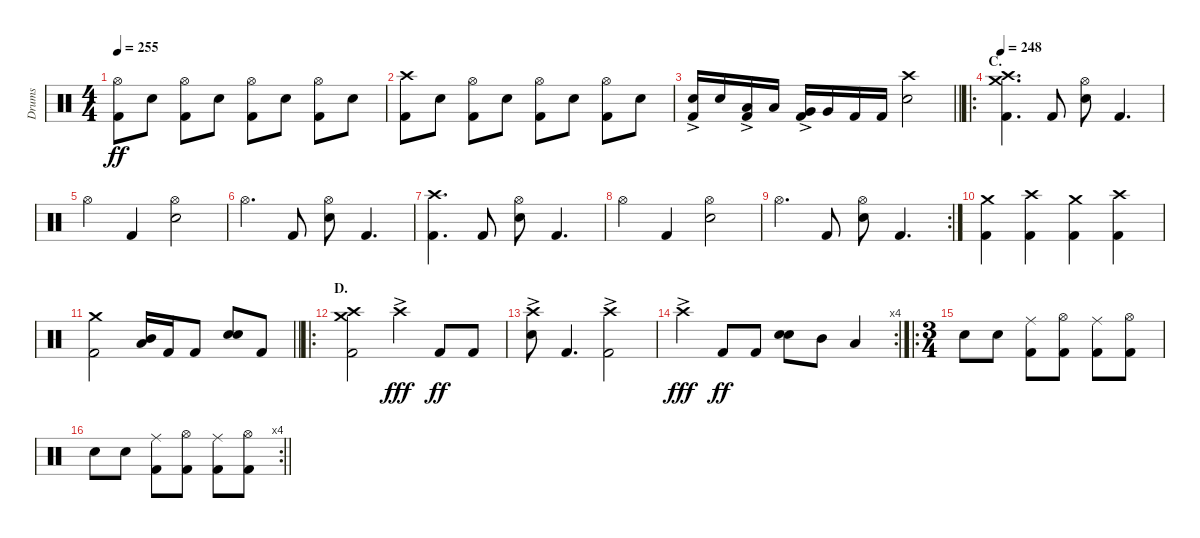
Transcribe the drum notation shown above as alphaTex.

\track ("Drums" "Drums") {instrument percussion}
\staff {score}
\articulation defaults
\ts (4 4)
\tempo 255
\clef neutral
\ks c
("Hi-Hat (open)" "Kick (hit) 2").8{dy ff} "Electric Snare (hit)".8 ("Hi-Hat (open)" "Kick (hit) 2").8 "Electric Snare (hit)".8 ("Hi-Hat (open)" "Kick (hit) 2").8 "Electric Snare (hit)".8 ("Hi-Hat (open)" "Kick (hit) 2").8 "Electric Snare (hit)".8 |
("Crash high (hit)" "Kick (hit) 2").8 "Electric Snare (hit)".8 ("Hi-Hat (open)" "Kick (hit) 2").8 "Electric Snare (hit)".8 ("Hi-Hat (open)" "Kick (hit) 2").8 "Electric Snare (hit)".8 ("Hi-Hat (open)" "Kick (hit) 2").8 "Electric Snare (hit)".8 |
\barLineRight lightlight
("Electric Snare (hit)"{ac} "Kick (hit) 2").16 "Electric Snare (hit)".16 ("Low Tom (hit)"{ac} "Kick (hit) 2").16 "Low Tom (hit)".16 ("Very Low Tom (hit)"{ac} "Kick (hit) 2").16 "Very Low Tom (hit)".16 "Kick (hit) 2".16 "Kick (hit) 2".16 ("Crash high (hit)" "Electric Snare (hit)").2 |
\ro
\section ("" "C.")
\tempo 248
("Crash medium (hit)" "Crash high (hit)" "Kick (hit) 2").4{d} "Kick (hit) 2".8 ("Hi-Hat (open)" "Electric Snare (hit)").8 "Kick (hit) 2".4{d} |
"Hi-Hat (open)".4 "Kick (hit) 2".4 ("Hi-Hat (open)" "Electric Snare (hit)").2 |
"Hi-Hat (open)".4{d} "Kick (hit) 2".8 ("Hi-Hat (open)" "Electric Snare (hit)").8 "Kick (hit) 2".4{d} |
("Crash high (hit)" "Kick (hit) 2").4{d} "Kick (hit) 2".8 ("Hi-Hat (open)" "Electric Snare (hit)").8 "Kick (hit) 2".4{d} |
"Hi-Hat (open)".4 "Kick (hit) 2".4 ("Hi-Hat (open)" "Electric Snare (hit)").2 |
\rc 2 "Hi-Hat (open)".4{d} "Kick (hit) 2".8
("Hi-Hat (open)" "Electric Snare (hit)").8 "Kick (hit) 2".4{d} |
("Crash medium (hit)" "Kick (hit) 2").4 ("Crash high (hit)" "Kick (hit) 2").4 ("Crash medium (hit)" "Kick (hit) 2").4 ("Crash high (hit)" "Kick (hit) 2").4 |
\barLineRight lightlight
("Crash medium (hit)" "Kick (hit) 2").2 ("Mid Tom (hit)" "Low Tom (hit)").16{bu 60} "Kick (hit) 2".16 "Kick (hit) 2".8 ("Electric Snare (hit)" "Electric Snare (hit)").8{bu 60} "Kick (hit) 2".8 |
\ro
\section ("" "D.")
("Crash medium (hit)" "Crash high (hit)" "Kick (hit) 2").2 "Crash high (hit)"{ac}.4{dy fff} "Kick (hit) 2".8{dy ff} "Kick (hit) 2".8 |
("Crash high (hit)"{ac} "Electric Snare (hit)").8 "Kick (hit) 2".4{d} ("Crash high (hit)"{ac} "Kick (hit) 2").2 |
\rc 4 "Crash high (hit)"{ac}.4{dy fff} "Kick (hit) 2".8{dy ff} "Kick (hit) 2".8
("Electric Snare (hit)" "Electric Snare (hit)").8{bu 60} "Mid Tom (hit)".8 "Low Tom (hit)".4 |
\ro
\ts (3 4)
"Electric Snare (hit)".8 "Electric Snare (hit)".8 ("Ride (middle)" "Kick (hit) 2").8 ("Hi-Hat (open)" "Kick (hit) 2").8 ("Ride (middle)" "Kick (hit) 2").8 ("Hi-Hat (open)" "Kick (hit) 2").8 |
\rc 4
\barLineRight lightlight "Electric Snare (hit)".8 "Electric Snare (hit)".8
("Ride (middle)" "Kick (hit) 2").8 ("Hi-Hat (open)" "Kick (hit) 2").8 ("Ride (middle)" "Kick (hit) 2").8 ("Hi-Hat (open)" "Kick (hit) 2").8
